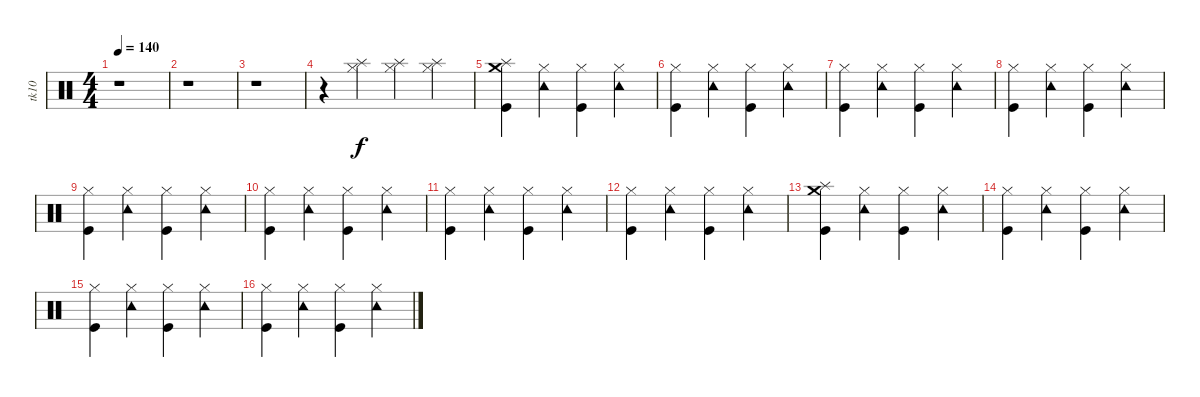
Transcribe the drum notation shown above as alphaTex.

\track ("tk10" "tk10") {instrument percussion}
\staff {score}
\articulation defaults
\ts (4 4)
\tempo 140
\clef neutral
\ks c
r.1{dy f} |
r.1 |
r.1 |
r.4 ("Hi-Hat (closed)" "Splash (hit)").4{balance 8} ("Hi-Hat (closed)" "Splash (hit)").4 ("Hi-Hat (closed)" "Splash (hit)").4 |
("Splash (hit)" "Kick (hit)" "Crash medium (hit)").4 ("Hi-Hat (closed)" "Tambourine (hit)").4 ("Hi-Hat (closed)" "Kick (hit)").4 ("Hi-Hat (closed)" "Tambourine (hit)").4 |
("Hi-Hat (closed)" "Kick (hit)").4 ("Tambourine (hit)" "Hi-Hat (closed)").4 ("Hi-Hat (closed)" "Kick (hit)").4 ("Hi-Hat (closed)" "Tambourine (hit)").4 |
("Hi-Hat (closed)" "Kick (hit)").4 ("Tambourine (hit)" "Hi-Hat (closed)").4 ("Hi-Hat (closed)" "Kick (hit)").4 ("Hi-Hat (closed)" "Tambourine (hit)").4 |
("Hi-Hat (closed)" "Kick (hit)").4 ("Tambourine (hit)" "Hi-Hat (closed)").4 ("Hi-Hat (closed)" "Kick (hit)").4 ("Hi-Hat (closed)" "Tambourine (hit)").4 |
("Hi-Hat (closed)" "Kick (hit)").4 ("Tambourine (hit)" "Hi-Hat (closed)").4 ("Hi-Hat (closed)" "Kick (hit)").4 ("Hi-Hat (closed)" "Tambourine (hit)").4 |
("Hi-Hat (closed)" "Kick (hit)").4 ("Tambourine (hit)" "Hi-Hat (closed)").4 ("Hi-Hat (closed)" "Kick (hit)").4 ("Hi-Hat (closed)" "Tambourine (hit)").4 |
("Hi-Hat (closed)" "Kick (hit)").4 ("Tambourine (hit)" "Hi-Hat (closed)").4 ("Hi-Hat (closed)" "Kick (hit)").4 ("Hi-Hat (closed)" "Tambourine (hit)").4 |
("Hi-Hat (closed)" "Kick (hit)").4 ("Tambourine (hit)" "Hi-Hat (closed)").4 ("Hi-Hat (closed)" "Kick (hit)").4 ("Hi-Hat (closed)" "Tambourine (hit)").4 |
("Splash (hit)" "Kick (hit)" "Crash medium (hit)").4 ("Hi-Hat (closed)" "Tambourine (hit)").4 ("Hi-Hat (closed)" "Kick (hit)").4 ("Hi-Hat (closed)" "Tambourine (hit)").4 |
("Hi-Hat (closed)" "Kick (hit)").4 ("Tambourine (hit)" "Hi-Hat (closed)").4 ("Hi-Hat (closed)" "Kick (hit)").4 ("Hi-Hat (closed)" "Tambourine (hit)").4 |
("Hi-Hat (closed)" "Kick (hit)").4 ("Tambourine (hit)" "Hi-Hat (closed)").4 ("Hi-Hat (closed)" "Kick (hit)").4 ("Hi-Hat (closed)" "Tambourine (hit)").4 |
("Hi-Hat (closed)" "Kick (hit)").4 ("Tambourine (hit)" "Hi-Hat (closed)").4 ("Hi-Hat (closed)" "Kick (hit)").4 ("Hi-Hat (closed)" "Tambourine (hit)").4
